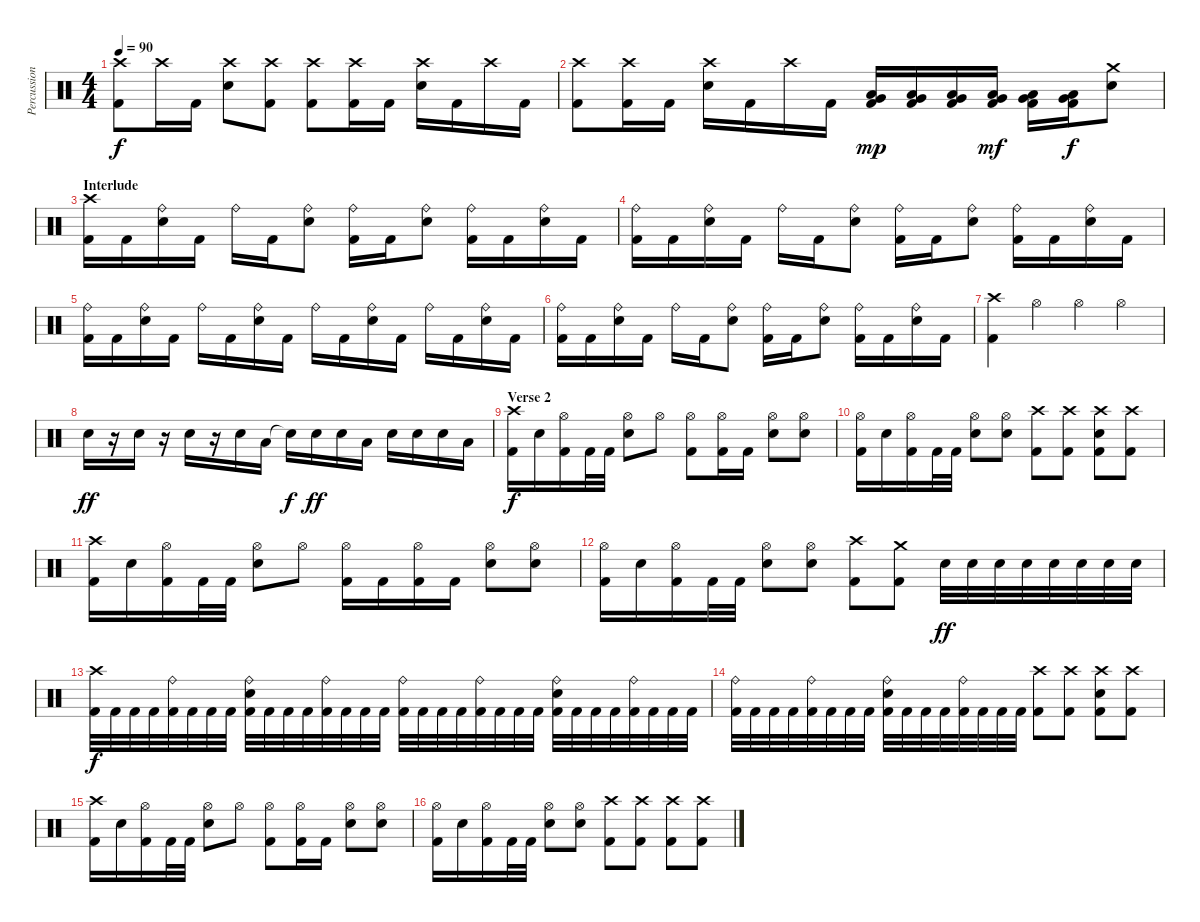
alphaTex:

\track ("Percussion" "Percussion") {instrument percussion}
\staff {score}
\articulation defaults
\ts (4 4)
\tempo 90
\clef neutral
\ks c
("Crash high (hit)" "Kick (hit) 2").8{dy f} "Crash high (hit)".16 "Kick (hit) 2".16 ("Crash high (hit)" "Electric Snare (hit)").8 ("Crash high (hit)" "Kick (hit) 2").8 ("Crash high (hit)" "Kick (hit) 2").8 ("Crash high (hit)" "Kick (hit) 2").16 "Kick (hit) 2".16 ("Crash high (hit)" "Electric Snare (hit)").16 "Kick (hit) 2".16 "Crash high (hit)".16 "Kick (hit) 2".16 |
("Crash high (hit)" "Kick (hit) 2").8 ("Crash high (hit)" "Kick (hit) 2").16 "Kick (hit) 2".16 ("Crash high (hit)" "Electric Snare (hit)").16 "Kick (hit) 2".16 "Crash high (hit)".16 "Kick (hit) 2".16 ("Very Low Tom (hit)" "Low Floor Tom (hit)" "Kick (hit) 2").16{dy mp} ("Very Low Tom (hit)" "Low Floor Tom (hit)" "Kick (hit) 2").16 ("Very Low Tom (hit)" "Low Floor Tom (hit)" "Kick (hit) 2").16 ("Very Low Tom (hit)" "Low Floor Tom (hit)" "Kick (hit) 2").16{dy mf} ("Very Low Tom (hit)" "Low Floor Tom (hit)" "Kick (hit) 2").16 ("Very Low Tom (hit)" "Low Floor Tom (hit)" "Kick (hit) 2").16{dy f} ("Crash medium (hit)" "Electric Snare (hit)").8 |
\section ("" "Interlude")
("Crash high (hit)" "Kick (hit) 2").16 "Kick (hit) 2".16 ("Ride (bell)" "Electric Snare (hit)").16 "Kick (hit) 2".16 "Ride (bell)".16 "Kick (hit) 2".16 ("Ride (bell)" "Electric Snare (hit)").8 ("Ride (bell)" "Kick (hit) 2").16 "Kick (hit) 2".16 ("Ride (bell)" "Electric Snare (hit)").8 ("Ride (bell)" "Kick (hit) 2").16 "Kick (hit) 2".16 ("Ride (bell)" "Electric Snare (hit)").16 "Kick (hit) 2".16 |
("Ride (bell)" "Kick (hit) 2").16 "Kick (hit) 2".16 ("Ride (bell)" "Electric Snare (hit)").16 "Kick (hit) 2".16 "Ride (bell)".16 "Kick (hit) 2".16 ("Ride (bell)" "Electric Snare (hit)").8 ("Ride (bell)" "Kick (hit) 2").16 "Kick (hit) 2".16 ("Ride (bell)" "Electric Snare (hit)").8 ("Ride (bell)" "Kick (hit) 2").16 "Kick (hit) 2".16 ("Ride (bell)" "Electric Snare (hit)").16 "Kick (hit) 2".16 |
("Ride (bell)" "Kick (hit) 2").16 "Kick (hit) 2".16 ("Ride (bell)" "Electric Snare (hit)").16 "Kick (hit) 2".16 "Ride (bell)".16 "Kick (hit) 2".16 ("Ride (bell)" "Electric Snare (hit)").16 "Kick (hit) 2".16 "Ride (bell)".16 "Kick (hit) 2".16 ("Ride (bell)" "Electric Snare (hit)").16 "Kick (hit) 2".16 "Ride (bell)".16 "Kick (hit) 2".16 ("Ride (bell)" "Electric Snare (hit)").16 "Kick (hit) 2".16 |
("Ride (bell)" "Kick (hit) 2").16 "Kick (hit) 2".16 ("Ride (bell)" "Electric Snare (hit)").16 "Kick (hit) 2".16 "Ride (bell)".16 "Kick (hit) 2".16 ("Ride (bell)" "Electric Snare (hit)").8 ("Ride (bell)" "Kick (hit) 2").16 "Kick (hit) 2".16 ("Ride (bell)" "Electric Snare (hit)").8 ("Ride (bell)" "Kick (hit) 2").16 "Kick (hit) 2".16 ("Ride (bell)" "Electric Snare (hit)").16 "Kick (hit) 2".16 |
("Crash high (hit)" "Kick (hit) 2").4 "Hi-Hat (open)".4 "Hi-Hat (open)".4 "Hi-Hat (open)".4 |
"Electric Snare (hit)".16{dy ff} r.16 "Electric Snare (hit)".16 r.16 "Electric Snare (hit)".16 r.16 "Electric Snare (hit)".16 "Low Tom (hit)".16 "Snare (hit)"{t}.16{dy f} "Electric Snare (hit)".16{dy ff} "Electric Snare (hit)".16 "Low Tom (hit)".16 "Electric Snare (hit)".16 "Electric Snare (hit)".16 "Electric Snare (hit)".16 "Low Tom (hit)".16 |
\section ("" "Verse 2")
("Crash high (hit)" "Kick (hit) 2").16{dy f} "Electric Snare (hit)".16 ("Hi-Hat (open)" "Kick (hit) 2").16 "Kick (hit) 2".32 "Kick (hit) 2".32 ("Hi-Hat (open)" "Electric Snare (hit)").8 "Hi-Hat (open)".8 ("Hi-Hat (open)" "Kick (hit) 2").8 ("Hi-Hat (open)" "Kick (hit) 2").16 "Kick (hit) 2".16 ("Hi-Hat (open)" "Electric Snare (hit)").8 ("Hi-Hat (open)" "Electric Snare (hit)").8 |
("Hi-Hat (open)" "Kick (hit) 2").16 "Electric Snare (hit)".16 ("Hi-Hat (open)" "Kick (hit) 2").16 "Kick (hit) 2".32 "Kick (hit) 2".32 ("Hi-Hat (open)" "Electric Snare (hit)").8 ("Hi-Hat (open)" "Electric Snare (hit)").8 ("Crash high (hit)" "Kick (hit) 2").8 ("Crash high (hit)" "Kick (hit) 2").8 ("Crash high (hit)" "Electric Snare (hit)" "Kick (hit) 2").8 ("Crash high (hit)" "Kick (hit) 2").8 |
("Crash high (hit)" "Kick (hit) 2").16 "Electric Snare (hit)".16 ("Hi-Hat (open)" "Kick (hit) 2").16 "Kick (hit) 2".32 "Kick (hit) 2".32 ("Hi-Hat (open)" "Electric Snare (hit)").8 "Hi-Hat (open)".8 ("Hi-Hat (open)" "Kick (hit) 2").16 "Kick (hit) 2".16 ("Hi-Hat (open)" "Kick (hit) 2").16 "Kick (hit) 2".16 ("Hi-Hat (open)" "Electric Snare (hit)").8 ("Hi-Hat (open)" "Electric Snare (hit)").8 |
("Hi-Hat (open)" "Kick (hit) 2").16 "Electric Snare (hit)".16 ("Hi-Hat (open)" "Kick (hit) 2").16 "Kick (hit) 2".32 "Kick (hit) 2".32 ("Hi-Hat (open)" "Electric Snare (hit)").8 ("Hi-Hat (open)" "Electric Snare (hit)").8 ("Crash high (hit)" "Kick (hit) 2").8 ("Crash medium (hit)" "Kick (hit) 2").8 "Electric Snare (hit)".32{dy ff} "Electric Snare (hit)".32 "Electric Snare (hit)".32 "Electric Snare (hit)".32 "Electric Snare (hit)".32 "Electric Snare (hit)".32 "Electric Snare (hit)".32 "Electric Snare (hit)".32 |
("Crash high (hit)" "Kick (hit) 2").32{dy f} "Kick (hit) 2".32 "Kick (hit) 2".32 "Kick (hit) 2".32 ("Ride (bell)" "Kick (hit) 2").32 "Kick (hit) 2".32 "Kick (hit) 2".32 "Kick (hit) 2".32 ("Ride (bell)" "Electric Snare (hit)" "Kick (hit) 2").32 "Kick (hit) 2".32 "Kick (hit) 2".32 "Kick (hit) 2".32 ("Ride (bell)" "Kick (hit) 2").32 "Kick (hit) 2".32 "Kick (hit) 2".32 "Kick (hit) 2".32 ("Ride (bell)" "Kick (hit) 2").32 "Kick (hit) 2".32 "Kick (hit) 2".32 "Kick (hit) 2".32 ("Ride (bell)" "Kick (hit) 2").32 "Kick (hit) 2".32 "Kick (hit) 2".32 "Kick (hit) 2".32 ("Ride (bell)" "Electric Snare (hit)" "Kick (hit) 2").32 "Kick (hit) 2".32 "Kick (hit) 2".32 "Kick (hit) 2".32 ("Ride (bell)" "Kick (hit) 2").32 "Kick (hit) 2".32 "Kick (hit) 2".32 "Kick (hit) 2".32 |
("Ride (bell)" "Kick (hit) 2").32 "Kick (hit) 2".32 "Kick (hit) 2".32 "Kick (hit) 2".32 ("Ride (bell)" "Kick (hit) 2").32 "Kick (hit) 2".32 "Kick (hit) 2".32 "Kick (hit) 2".32 ("Ride (bell)" "Electric Snare (hit)" "Kick (hit) 2").32 "Kick (hit) 2".32 "Kick (hit) 2".32 "Kick (hit) 2".32 ("Ride (bell)" "Kick (hit) 2").32 "Kick (hit) 2".32 "Kick (hit) 2".32 "Kick (hit) 2".32 ("Crash high (hit)" "Kick (hit) 2").8 ("Crash high (hit)" "Kick (hit) 2").8 ("Crash high (hit)" "Electric Snare (hit)" "Kick (hit) 2").8 ("Crash high (hit)" "Kick (hit) 2").8 |
("Crash high (hit)" "Kick (hit) 2").16 "Electric Snare (hit)".16 ("Hi-Hat (open)" "Kick (hit) 2").16 "Kick (hit) 2".32 "Kick (hit) 2".32 ("Hi-Hat (open)" "Electric Snare (hit)").8 "Hi-Hat (open)".8 ("Hi-Hat (open)" "Kick (hit) 2").8 ("Hi-Hat (open)" "Kick (hit) 2").16 "Kick (hit) 2".16 ("Hi-Hat (open)" "Electric Snare (hit)").8 ("Hi-Hat (open)" "Electric Snare (hit)").8 |
("Hi-Hat (open)" "Kick (hit) 2").16 "Electric Snare (hit)".16 ("Hi-Hat (open)" "Kick (hit) 2").16 "Kick (hit) 2".32 "Kick (hit) 2".32 ("Hi-Hat (open)" "Electric Snare (hit)").8 ("Hi-Hat (open)" "Electric Snare (hit)").8 ("Crash high (hit)" "Kick (hit) 2").8 ("Crash high (hit)" "Kick (hit) 2").8 ("Crash high (hit)" "Kick (hit) 2").8 ("Crash high (hit)" "Kick (hit) 2").8
